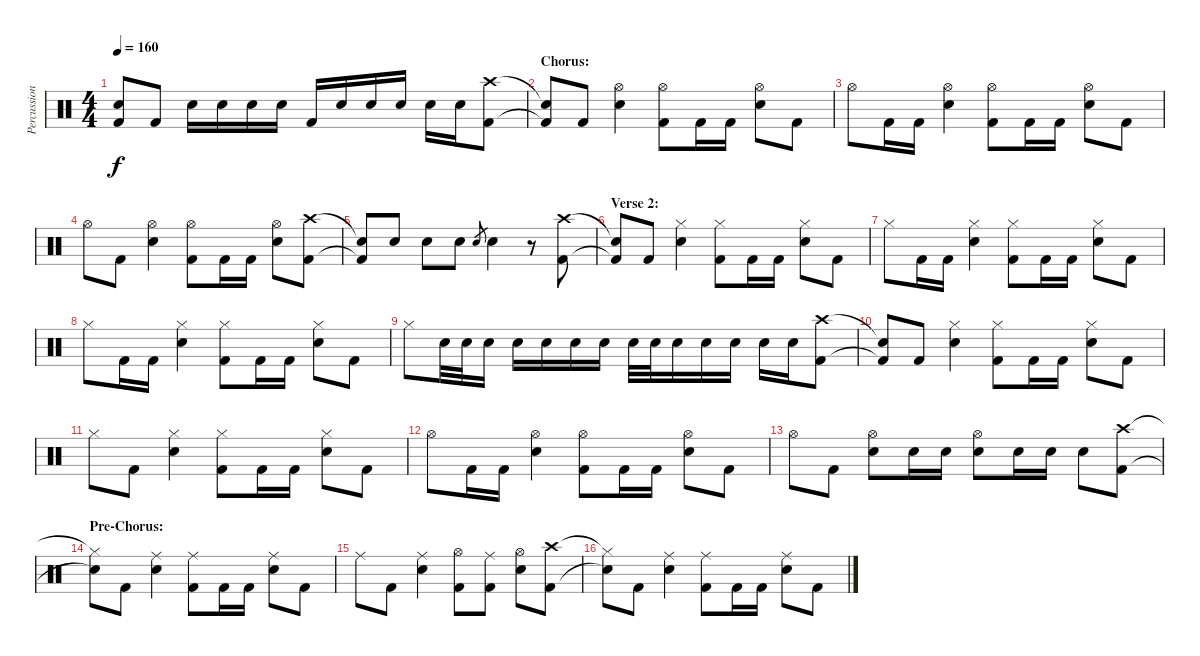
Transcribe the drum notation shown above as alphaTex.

\track ("Percussion" "Percussion") {instrument percussion}
\staff {score}
\articulation defaults
\ts (4 4)
\tempo 160
\clef neutral
\ks c
("Snare (hit)"{t} "Kick (hit) 2"{t}).8{dy f} "Kick (hit) 2".8 "Electric Snare (hit)".16 "Electric Snare (hit)".16 "Electric Snare (hit)".16 "Electric Snare (hit)".16 "Kick (hit) 2".16 "Electric Snare (hit)".16 "Electric Snare (hit)".16 "Electric Snare (hit)".16 "Electric Snare (hit)".16 "Electric Snare (hit)".16 ("Crash high (hit)" "Kick (hit) 2").8 |
\section ("" "Chorus:")
("Snare (hit)"{t} "Kick (hit) 2"{t}).8 "Kick (hit) 2".8 ("Hi-Hat (open)" "Electric Snare (hit)").4 ("Hi-Hat (open)" "Kick (hit) 2").8 "Kick (hit) 2".16 "Kick (hit) 2".16 ("Hi-Hat (open)" "Electric Snare (hit)").8 "Kick (hit) 2".8 |
"Hi-Hat (open)".8 "Kick (hit) 2".16 "Kick (hit) 2".16 ("Hi-Hat (open)" "Electric Snare (hit)").4 ("Hi-Hat (open)" "Kick (hit) 2").8 "Kick (hit) 2".16 "Kick (hit) 2".16 ("Hi-Hat (open)" "Electric Snare (hit)").8 "Kick (hit) 2".8 |
"Hi-Hat (open)".8 "Kick (hit) 2".8 ("Hi-Hat (open)" "Electric Snare (hit)").4 ("Hi-Hat (open)" "Kick (hit) 2").8 "Kick (hit) 2".16 "Kick (hit) 2".16 ("Hi-Hat (open)" "Electric Snare (hit)").8 ("Crash high (hit)" "Kick (hit) 2").8 |
("Snare (hit)"{t} "Kick (hit) 2"{t}).8 "Electric Snare (hit)".8 "Electric Snare (hit)".8 "Electric Snare (hit)".8 "Electric Snare (hit)".8{gr} "Electric Snare (hit)".4 r.8 ("Crash high (hit)" "Kick (hit) 2").8 |
\section ("" "Verse 2:")
("Snare (hit)"{t} "Kick (hit) 2"{t}).8 "Kick (hit) 2".8 ("Hi-Hat (closed)" "Electric Snare (hit)").4 ("Hi-Hat (closed)" "Kick (hit) 2").8 "Kick (hit) 2".16 "Kick (hit) 2".16 ("Hi-Hat (closed)" "Electric Snare (hit)").8 "Kick (hit) 2".8 |
"Hi-Hat (closed)".8 "Kick (hit) 2".16 "Kick (hit) 2".16 ("Hi-Hat (closed)" "Electric Snare (hit)").4 ("Hi-Hat (closed)" "Kick (hit) 2").8 "Kick (hit) 2".16 "Kick (hit) 2".16 ("Hi-Hat (closed)" "Electric Snare (hit)").8 "Kick (hit) 2".8 |
"Hi-Hat (closed)".8 "Kick (hit) 2".16 "Kick (hit) 2".16 ("Hi-Hat (closed)" "Electric Snare (hit)").4 ("Hi-Hat (closed)" "Kick (hit) 2").8 "Kick (hit) 2".16 "Kick (hit) 2".16 ("Hi-Hat (closed)" "Electric Snare (hit)").8 "Kick (hit) 2".8 |
"Hi-Hat (closed)".8 "Electric Snare (hit)".32 "Electric Snare (hit)".32 "Electric Snare (hit)".16 "Electric Snare (hit)".16 "Electric Snare (hit)".16 "Electric Snare (hit)".16 "Electric Snare (hit)".16 "Electric Snare (hit)".32 "Electric Snare (hit)".32 "Electric Snare (hit)".16 "Electric Snare (hit)".16 "Electric Snare (hit)".16 "Electric Snare (hit)".16 "Electric Snare (hit)".16 ("Crash high (hit)" "Kick (hit) 2").8 |
("Snare (hit)"{t} "Kick (hit) 2"{t}).8 "Kick (hit) 2".8 ("Hi-Hat (closed)" "Electric Snare (hit)").4 ("Hi-Hat (closed)" "Kick (hit) 2").8 "Kick (hit) 2".16 "Kick (hit) 2".16 ("Hi-Hat (closed)" "Electric Snare (hit)").8 "Kick (hit) 2".8 |
"Hi-Hat (closed)".8 "Kick (hit) 2".8 ("Hi-Hat (closed)" "Electric Snare (hit)").4 ("Hi-Hat (closed)" "Kick (hit) 2").8 "Kick (hit) 2".16 "Kick (hit) 2".16 ("Hi-Hat (closed)" "Electric Snare (hit)").8 "Kick (hit) 2".8 |
"Hi-Hat (open)".8 "Kick (hit) 2".16 "Kick (hit) 2".16 ("Hi-Hat (open)" "Electric Snare (hit)").4 ("Hi-Hat (open)" "Kick (hit) 2").8 "Kick (hit) 2".16 "Kick (hit) 2".16 ("Hi-Hat (open)" "Electric Snare (hit)").8 "Kick (hit) 2".8 |
"Hi-Hat (open)".8 "Kick (hit) 2".8 ("Hi-Hat (open)" "Electric Snare (hit)").8 "Electric Snare (hit)".16 "Electric Snare (hit)".16 ("Hi-Hat (open)" "Electric Snare (hit)").8 "Electric Snare (hit)".16 "Electric Snare (hit)".16 "Electric Snare (hit)".8 ("Crash high (hit)" "Kick (hit) 2").8 |
\section ("" "Pre-Chorus:")
("Hi-Hat (closed)"{t} "Snare (hit)"{t}).8 "Kick (hit) 2".8 ("Ride (middle)" "Electric Snare (hit)").4 ("Ride (middle)" "Kick (hit) 2").8 "Kick (hit) 2".16 "Kick (hit) 2".16 ("Ride (middle)" "Electric Snare (hit)").8 "Kick (hit) 2".8 |
"Ride (middle)".8 "Kick (hit) 2".8 ("Ride (middle)" "Electric Snare (hit)").4 ("Hi-Hat (open)" "Kick (hit) 2").8 ("Ride (middle)" "Kick (hit) 2").8 ("Hi-Hat (open)" "Electric Snare (hit)").8 ("Crash high (hit)" "Kick (hit) 2").8 |
("Hi-Hat (closed)"{t} "Snare (hit)"{t}).8 "Kick (hit) 2".8 ("Ride (middle)" "Electric Snare (hit)").4 ("Ride (middle)" "Kick (hit) 2").8 "Kick (hit) 2".16 "Kick (hit) 2".16 ("Ride (middle)" "Electric Snare (hit)").8 "Kick (hit) 2".8
